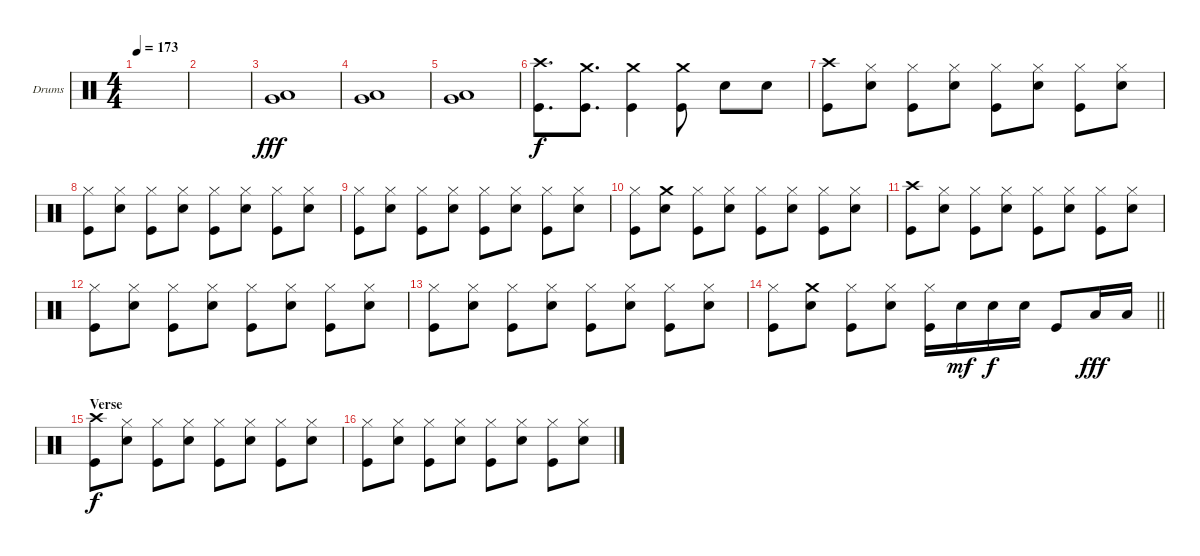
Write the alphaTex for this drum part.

\bracketExtendMode groupsimilarinstruments
\firstSystemTrackNameOrientation horizontal
\otherSystemsTrackNameOrientation horizontal
\track ("Drums" "Drums") {instrument percussion}
\staff {score}
\articulation defaults
\ts (4 4)
\tempo 173
\clef neutral
\ks c
|
|
("Very Low Tom (hit)" "Low Tom (hit)").1{dy fff} |
("Very Low Tom (hit)" "Low Tom (hit)").1 |
("Very Low Tom (hit)" "Low Tom (hit)").1 |
("Crash high (hit)" "Kick (hit)").8{d dy f} ("Kick (hit)" "Crash medium (hit)").8{d} ("Kick (hit)" "Crash medium (hit)").4 ("Kick (hit)" "Crash medium (hit)").8 "Snare (hit) 2".8 "Snare (hit) 2".8 |
("Crash high (hit)" "Kick (hit)").8 ("Hi-Hat (closed)" "Snare (hit) 2").8 ("Hi-Hat (closed)" "Kick (hit)").8 ("Hi-Hat (closed)" "Snare (hit) 2").8 ("Hi-Hat (closed)" "Kick (hit)").8 ("Hi-Hat (closed)" "Snare (hit) 2").8 ("Hi-Hat (closed)" "Kick (hit)").8 ("Hi-Hat (closed)" "Snare (hit) 2").8 |
("Hi-Hat (closed)" "Kick (hit)").8 ("Hi-Hat (closed)" "Snare (hit) 2").8 ("Hi-Hat (closed)" "Kick (hit)").8 ("Hi-Hat (closed)" "Snare (hit) 2").8 ("Hi-Hat (closed)" "Kick (hit)").8 ("Hi-Hat (closed)" "Snare (hit) 2").8 ("Hi-Hat (closed)" "Kick (hit)").8 ("Hi-Hat (closed)" "Snare (hit) 2").8 |
("Hi-Hat (closed)" "Kick (hit)").8 ("Hi-Hat (closed)" "Snare (hit) 2").8 ("Hi-Hat (closed)" "Kick (hit)").8 ("Hi-Hat (closed)" "Snare (hit) 2").8 ("Hi-Hat (closed)" "Kick (hit)").8 ("Hi-Hat (closed)" "Snare (hit) 2").8 ("Hi-Hat (closed)" "Kick (hit)").8 ("Hi-Hat (closed)" "Snare (hit) 2").8 |
("Hi-Hat (closed)" "Kick (hit)").8 ("Snare (hit) 2" "Crash medium (hit)").8 ("Hi-Hat (closed)" "Kick (hit)").8 ("Hi-Hat (closed)" "Snare (hit) 2").8 ("Hi-Hat (closed)" "Kick (hit)").8 ("Hi-Hat (closed)" "Snare (hit) 2").8 ("Hi-Hat (closed)" "Kick (hit)").8 ("Hi-Hat (closed)" "Snare (hit) 2").8 |
("Crash high (hit)" "Kick (hit)").8 ("Hi-Hat (closed)" "Snare (hit) 2").8 ("Hi-Hat (closed)" "Kick (hit)").8 ("Hi-Hat (closed)" "Snare (hit) 2").8 ("Hi-Hat (closed)" "Kick (hit)").8 ("Hi-Hat (closed)" "Snare (hit) 2").8 ("Hi-Hat (closed)" "Kick (hit)").8 ("Hi-Hat (closed)" "Snare (hit) 2").8 |
("Hi-Hat (closed)" "Kick (hit)").8 ("Hi-Hat (closed)" "Snare (hit) 2").8 ("Hi-Hat (closed)" "Kick (hit)").8 ("Hi-Hat (closed)" "Snare (hit) 2").8 ("Hi-Hat (closed)" "Kick (hit)").8 ("Hi-Hat (closed)" "Snare (hit) 2").8 ("Hi-Hat (closed)" "Kick (hit)").8 ("Hi-Hat (closed)" "Snare (hit) 2").8 |
("Hi-Hat (closed)" "Kick (hit)").8 ("Hi-Hat (closed)" "Snare (hit) 2").8 ("Hi-Hat (closed)" "Kick (hit)").8 ("Hi-Hat (closed)" "Snare (hit) 2").8 ("Hi-Hat (closed)" "Kick (hit)").8 ("Hi-Hat (closed)" "Snare (hit) 2").8 ("Hi-Hat (closed)" "Kick (hit)").8 ("Hi-Hat (closed)" "Snare (hit) 2").8 |
\barLineRight lightlight
("Hi-Hat (closed)" "Kick (hit)").8 ("Snare (hit) 2" "Crash medium (hit)").8 ("Hi-Hat (closed)" "Kick (hit)").8 ("Hi-Hat (closed)" "Snare (hit) 2").8 ("Hi-Hat (closed)" "Kick (hit)").16 "Snare (hit) 2".16{dy mf} "Snare (hit) 2".16{dy f} "Snare (hit) 2".16 "Kick (hit)".8 "Low Tom (hit)".16{dy fff} "Low Tom (hit)".16 |
\section ("" "Verse")
("Crash high (hit)" "Kick (hit)").8{dy f} ("Hi-Hat (closed)" "Snare (hit) 2").8 ("Hi-Hat (closed)" "Kick (hit)").8 ("Hi-Hat (closed)" "Snare (hit) 2").8 ("Hi-Hat (closed)" "Kick (hit)").8 ("Hi-Hat (closed)" "Snare (hit) 2").8 ("Hi-Hat (closed)" "Kick (hit)").8 ("Hi-Hat (closed)" "Snare (hit) 2").8 |
("Hi-Hat (closed)" "Kick (hit)").8 ("Hi-Hat (closed)" "Snare (hit) 2").8 ("Hi-Hat (closed)" "Kick (hit)").8 ("Hi-Hat (closed)" "Snare (hit) 2").8 ("Hi-Hat (closed)" "Kick (hit)").8 ("Hi-Hat (closed)" "Snare (hit) 2").8 ("Hi-Hat (closed)" "Kick (hit)").8 ("Hi-Hat (closed)" "Snare (hit) 2").8
